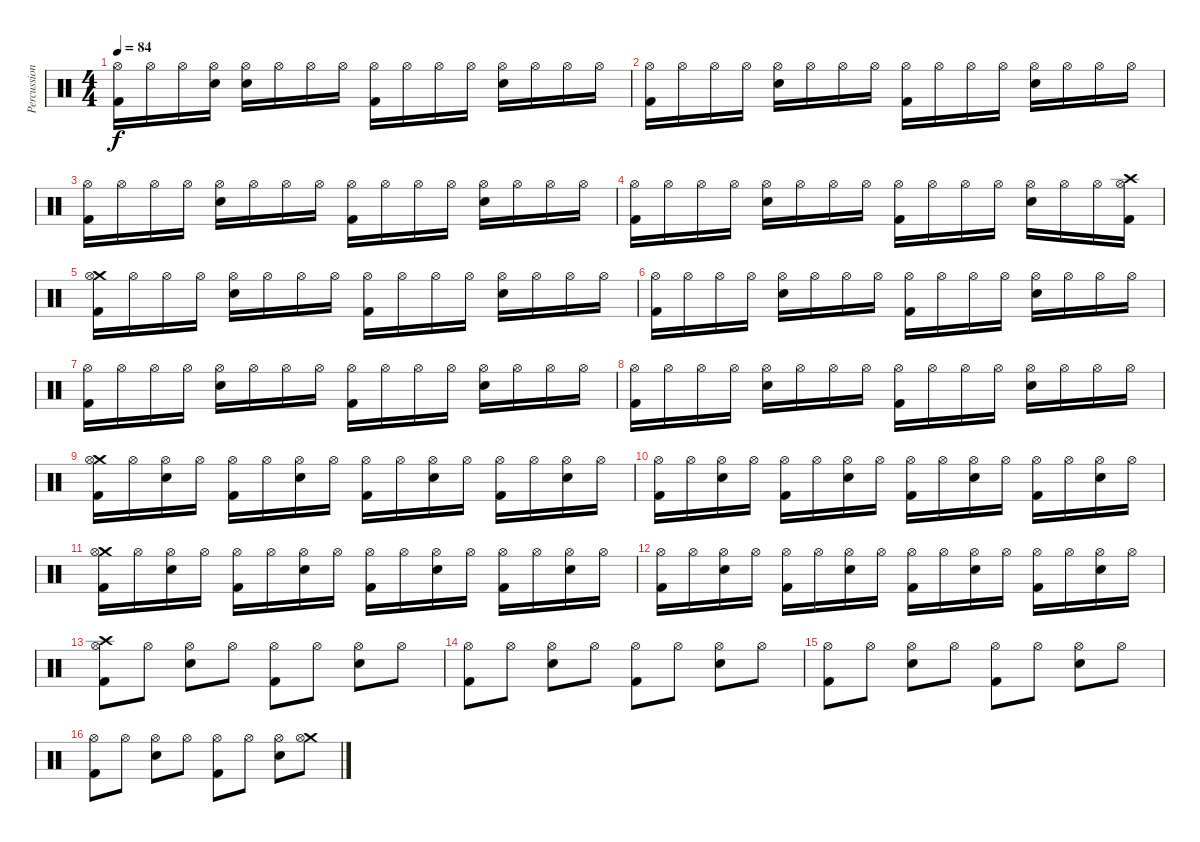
\track ("Percussion" "Percussion") {instrument percussion}
\staff {score}
\articulation defaults
\ts (4 4)
\tempo 84
\clef neutral
\ks c
("Hi-Hat (open)" "Kick (hit) 2").16{dy f} "Hi-Hat (open)".16 "Hi-Hat (open)".16 ("Hi-Hat (open)" "Snare (hit) 2").16 ("Hi-Hat (open)" "Snare (hit) 2").16 "Hi-Hat (open)".16 "Hi-Hat (open)".16 "Hi-Hat (open)".16 ("Hi-Hat (open)" "Kick (hit) 2").16 "Hi-Hat (open)".16 "Hi-Hat (open)".16 "Hi-Hat (open)".16 ("Hi-Hat (open)" "Snare (hit) 2").16 "Hi-Hat (open)".16 "Hi-Hat (open)".16 "Hi-Hat (open)".16 |
("Hi-Hat (open)" "Kick (hit) 2").16 "Hi-Hat (open)".16 "Hi-Hat (open)".16 "Hi-Hat (open)".16 ("Hi-Hat (open)" "Snare (hit) 2").16 "Hi-Hat (open)".16 "Hi-Hat (open)".16 "Hi-Hat (open)".16 ("Hi-Hat (open)" "Kick (hit) 2").16 "Hi-Hat (open)".16 "Hi-Hat (open)".16 "Hi-Hat (open)".16 ("Hi-Hat (open)" "Snare (hit) 2").16 "Hi-Hat (open)".16 "Hi-Hat (open)".16 "Hi-Hat (open)".16 |
("Hi-Hat (open)" "Kick (hit) 2").16 "Hi-Hat (open)".16 "Hi-Hat (open)".16 "Hi-Hat (open)".16 ("Hi-Hat (open)" "Snare (hit) 2").16 "Hi-Hat (open)".16 "Hi-Hat (open)".16 "Hi-Hat (open)".16 ("Hi-Hat (open)" "Kick (hit) 2").16 "Hi-Hat (open)".16 "Hi-Hat (open)".16 "Hi-Hat (open)".16 ("Hi-Hat (open)" "Snare (hit) 2").16 "Hi-Hat (open)".16 "Hi-Hat (open)".16 "Hi-Hat (open)".16 |
("Hi-Hat (open)" "Kick (hit) 2").16 "Hi-Hat (open)".16 "Hi-Hat (open)".16 "Hi-Hat (open)".16 ("Hi-Hat (open)" "Snare (hit) 2").16 "Hi-Hat (open)".16 "Hi-Hat (open)".16 "Hi-Hat (open)".16 ("Hi-Hat (open)" "Kick (hit) 2").16 "Hi-Hat (open)".16 "Hi-Hat (open)".16 "Hi-Hat (open)".16 ("Hi-Hat (open)" "Snare (hit) 2").16 "Hi-Hat (open)".16 "Hi-Hat (open)".16 ("Crash high (hit)" "Hi-Hat (open)" "Kick (hit) 2").16 |
("Crash medium (hit)" "Hi-Hat (open)" "Kick (hit) 2").16 "Hi-Hat (open)".16 "Hi-Hat (open)".16 "Hi-Hat (open)".16 ("Hi-Hat (open)" "Snare (hit) 2").16 "Hi-Hat (open)".16 "Hi-Hat (open)".16 "Hi-Hat (open)".16 ("Hi-Hat (open)" "Kick (hit) 2").16 "Hi-Hat (open)".16 "Hi-Hat (open)".16 "Hi-Hat (open)".16 ("Hi-Hat (open)" "Snare (hit) 2").16 "Hi-Hat (open)".16 "Hi-Hat (open)".16 "Hi-Hat (open)".16 |
("Hi-Hat (open)" "Kick (hit) 2").16 "Hi-Hat (open)".16 "Hi-Hat (open)".16 "Hi-Hat (open)".16 ("Hi-Hat (open)" "Snare (hit) 2").16 "Hi-Hat (open)".16 "Hi-Hat (open)".16 "Hi-Hat (open)".16 ("Hi-Hat (open)" "Kick (hit) 2").16 "Hi-Hat (open)".16 "Hi-Hat (open)".16 "Hi-Hat (open)".16 ("Hi-Hat (open)" "Snare (hit) 2").16 "Hi-Hat (open)".16 "Hi-Hat (open)".16 "Hi-Hat (open)".16 |
("Hi-Hat (open)" "Kick (hit) 2").16 "Hi-Hat (open)".16 "Hi-Hat (open)".16 "Hi-Hat (open)".16 ("Hi-Hat (open)" "Snare (hit) 2").16 "Hi-Hat (open)".16 "Hi-Hat (open)".16 "Hi-Hat (open)".16 ("Hi-Hat (open)" "Kick (hit) 2").16 "Hi-Hat (open)".16 "Hi-Hat (open)".16 "Hi-Hat (open)".16 ("Hi-Hat (open)" "Snare (hit) 2").16 "Hi-Hat (open)".16 "Hi-Hat (open)".16 "Hi-Hat (open)".16 |
("Hi-Hat (open)" "Kick (hit) 2").16 "Hi-Hat (open)".16 "Hi-Hat (open)".16 "Hi-Hat (open)".16 ("Hi-Hat (open)" "Snare (hit) 2").16 "Hi-Hat (open)".16 "Hi-Hat (open)".16 "Hi-Hat (open)".16 ("Hi-Hat (open)" "Kick (hit) 2").16 "Hi-Hat (open)".16 "Hi-Hat (open)".16 "Hi-Hat (open)".16 ("Hi-Hat (open)" "Snare (hit) 2").16 "Hi-Hat (open)".16 "Hi-Hat (open)".16 "Hi-Hat (open)".16 |
("Crash medium (hit)" "Hi-Hat (open)" "Kick (hit) 2").16 "Hi-Hat (open)".16 ("Hi-Hat (open)" "Snare (hit) 2").16 "Hi-Hat (open)".16 ("Hi-Hat (open)" "Kick (hit) 2").16 "Hi-Hat (open)".16 ("Hi-Hat (open)" "Snare (hit) 2").16 "Hi-Hat (open)".16 ("Hi-Hat (open)" "Kick (hit) 2").16 "Hi-Hat (open)".16 ("Hi-Hat (open)" "Snare (hit) 2").16 "Hi-Hat (open)".16 ("Hi-Hat (open)" "Kick (hit) 2").16 "Hi-Hat (open)".16 ("Hi-Hat (open)" "Snare (hit) 2").16 "Hi-Hat (open)".16 |
("Hi-Hat (open)" "Kick (hit) 2").16 "Hi-Hat (open)".16 ("Hi-Hat (open)" "Snare (hit) 2").16 "Hi-Hat (open)".16 ("Hi-Hat (open)" "Kick (hit) 2").16 "Hi-Hat (open)".16 ("Hi-Hat (open)" "Snare (hit) 2").16 "Hi-Hat (open)".16 ("Hi-Hat (open)" "Kick (hit) 2").16 "Hi-Hat (open)".16 ("Hi-Hat (open)" "Snare (hit) 2").16 "Hi-Hat (open)".16 ("Hi-Hat (open)" "Kick (hit) 2").16 "Hi-Hat (open)".16 ("Hi-Hat (open)" "Snare (hit) 2").16 "Hi-Hat (open)".16 |
("Crash medium (hit)" "Hi-Hat (open)" "Kick (hit) 2").16 "Hi-Hat (open)".16 ("Hi-Hat (open)" "Snare (hit) 2").16 "Hi-Hat (open)".16 ("Hi-Hat (open)" "Kick (hit) 2").16 "Hi-Hat (open)".16 ("Hi-Hat (open)" "Snare (hit) 2").16 "Hi-Hat (open)".16 ("Hi-Hat (open)" "Kick (hit) 2").16 "Hi-Hat (open)".16 ("Hi-Hat (open)" "Snare (hit) 2").16 "Hi-Hat (open)".16 ("Hi-Hat (open)" "Kick (hit) 2").16 "Hi-Hat (open)".16 ("Hi-Hat (open)" "Snare (hit) 2").16 "Hi-Hat (open)".16 |
("Hi-Hat (open)" "Kick (hit) 2").16 "Hi-Hat (open)".16 ("Hi-Hat (open)" "Snare (hit) 2").16 "Hi-Hat (open)".16 ("Hi-Hat (open)" "Kick (hit) 2").16 "Hi-Hat (open)".16 ("Hi-Hat (open)" "Snare (hit) 2").16 "Hi-Hat (open)".16 ("Hi-Hat (open)" "Kick (hit) 2").16 "Hi-Hat (open)".16 ("Hi-Hat (open)" "Snare (hit) 2").16 "Hi-Hat (open)".16 ("Hi-Hat (open)" "Kick (hit) 2").16 "Hi-Hat (open)".16 ("Hi-Hat (open)" "Snare (hit) 2").16 "Hi-Hat (open)".16 |
("Crash high (hit)" "Hi-Hat (open)" "Kick (hit) 2").8 "Hi-Hat (open)".8 ("Hi-Hat (open)" "Snare (hit) 2").8 "Hi-Hat (open)".8 ("Hi-Hat (open)" "Kick (hit) 2").8 "Hi-Hat (open)".8 ("Hi-Hat (open)" "Snare (hit) 2").8 "Hi-Hat (open)".8 |
("Hi-Hat (open)" "Kick (hit) 2").8 "Hi-Hat (open)".8 ("Hi-Hat (open)" "Snare (hit) 2").8 "Hi-Hat (open)".8 ("Hi-Hat (open)" "Kick (hit) 2").8 "Hi-Hat (open)".8 ("Hi-Hat (open)" "Snare (hit) 2").8 "Hi-Hat (open)".8 |
("Hi-Hat (open)" "Kick (hit) 2").8 "Hi-Hat (open)".8 ("Hi-Hat (open)" "Snare (hit) 2").8 "Hi-Hat (open)".8 ("Hi-Hat (open)" "Kick (hit) 2").8 "Hi-Hat (open)".8 ("Hi-Hat (open)" "Snare (hit) 2").8 "Hi-Hat (open)".8 |
("Hi-Hat (open)" "Kick (hit) 2").8 "Hi-Hat (open)".8 ("Hi-Hat (open)" "Snare (hit) 2").8 "Hi-Hat (open)".8 ("Hi-Hat (open)" "Kick (hit) 2").8 "Hi-Hat (open)".8 ("Hi-Hat (open)" "Snare (hit) 2").8 ("Crash medium (hit)" "Hi-Hat (open)").8
